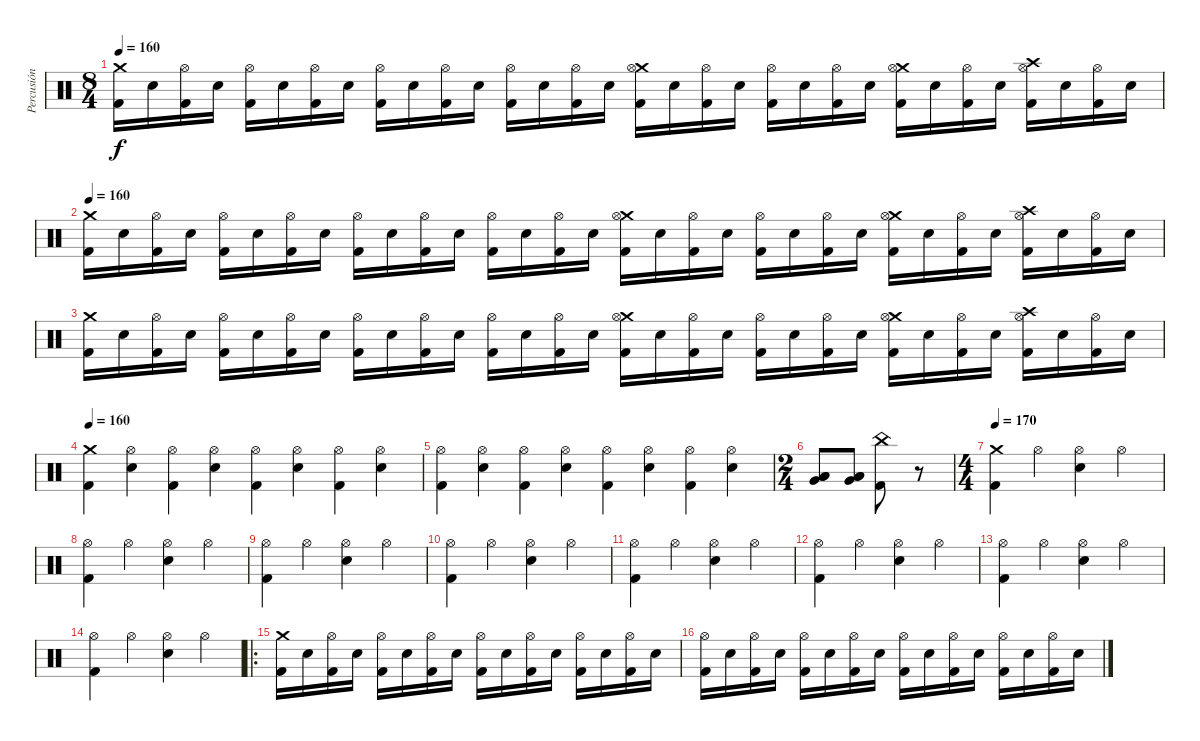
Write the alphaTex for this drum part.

\track ("Percusión" "Percusión") {instrument percussion}
\staff {score}
\articulation defaults
\ts (8 4)
\tempo 160
\clef neutral
\ks c
("Crash medium (hit)" "Kick (hit) 2").16{dy f} "Electric Snare (hit)".16 ("Hi-Hat (open)" "Kick (hit) 2").16 "Electric Snare (hit)".16 ("Hi-Hat (open)" "Kick (hit) 2").16 "Electric Snare (hit)".16 ("Hi-Hat (open)" "Kick (hit) 2").16 "Electric Snare (hit)".16 ("Hi-Hat (open)" "Kick (hit) 2").16 "Electric Snare (hit)".16 ("Hi-Hat (open)" "Kick (hit) 2").16 "Electric Snare (hit)".16 ("Hi-Hat (open)" "Kick (hit) 2").16 "Electric Snare (hit)".16 ("Hi-Hat (open)" "Kick (hit) 2").16 "Electric Snare (hit)".16 ("Crash medium (hit)" "Hi-Hat (open)" "Kick (hit) 2").16 "Electric Snare (hit)".16 ("Hi-Hat (open)" "Kick (hit) 2").16 "Electric Snare (hit)".16 ("Hi-Hat (open)" "Kick (hit) 2").16 "Electric Snare (hit)".16 ("Hi-Hat (open)" "Kick (hit) 2").16 "Electric Snare (hit)".16 ("Crash medium (hit)" "Hi-Hat (open)" "Kick (hit) 2").16 "Electric Snare (hit)".16 ("Hi-Hat (open)" "Kick (hit) 2").16 "Electric Snare (hit)".16 ("Crash high (hit)" "Hi-Hat (open)" "Kick (hit) 2").16 "Electric Snare (hit)".16 ("Hi-Hat (open)" "Kick (hit) 2").16 "Electric Snare (hit)".16 |
\tempo 160
("Crash medium (hit)" "Kick (hit) 2").16 "Electric Snare (hit)".16 ("Hi-Hat (open)" "Kick (hit) 2").16 "Electric Snare (hit)".16 ("Hi-Hat (open)" "Kick (hit) 2").16 "Electric Snare (hit)".16 ("Hi-Hat (open)" "Kick (hit) 2").16 "Electric Snare (hit)".16 ("Hi-Hat (open)" "Kick (hit) 2").16 "Electric Snare (hit)".16 ("Hi-Hat (open)" "Kick (hit) 2").16 "Electric Snare (hit)".16 ("Hi-Hat (open)" "Kick (hit) 2").16 "Electric Snare (hit)".16 ("Hi-Hat (open)" "Kick (hit) 2").16 "Electric Snare (hit)".16 ("Crash medium (hit)" "Hi-Hat (open)" "Kick (hit) 2").16 "Electric Snare (hit)".16 ("Hi-Hat (open)" "Kick (hit) 2").16 "Electric Snare (hit)".16 ("Hi-Hat (open)" "Kick (hit) 2").16 "Electric Snare (hit)".16 ("Hi-Hat (open)" "Kick (hit) 2").16 "Electric Snare (hit)".16 ("Crash medium (hit)" "Hi-Hat (open)" "Kick (hit) 2").16 "Electric Snare (hit)".16 ("Hi-Hat (open)" "Kick (hit) 2").16 "Electric Snare (hit)".16 ("Crash high (hit)" "Hi-Hat (open)" "Kick (hit) 2").16 "Electric Snare (hit)".16 ("Hi-Hat (open)" "Kick (hit) 2").16 "Electric Snare (hit)".16 |
("Crash medium (hit)" "Kick (hit) 2").16 "Electric Snare (hit)".16 ("Hi-Hat (open)" "Kick (hit) 2").16 "Electric Snare (hit)".16 ("Hi-Hat (open)" "Kick (hit) 2").16 "Electric Snare (hit)".16 ("Hi-Hat (open)" "Kick (hit) 2").16 "Electric Snare (hit)".16 ("Hi-Hat (open)" "Kick (hit) 2").16 "Electric Snare (hit)".16 ("Hi-Hat (open)" "Kick (hit) 2").16 "Electric Snare (hit)".16 ("Hi-Hat (open)" "Kick (hit) 2").16 "Electric Snare (hit)".16 ("Hi-Hat (open)" "Kick (hit) 2").16 "Electric Snare (hit)".16 ("Crash medium (hit)" "Hi-Hat (open)" "Kick (hit) 2").16 "Electric Snare (hit)".16 ("Hi-Hat (open)" "Kick (hit) 2").16 "Electric Snare (hit)".16 ("Hi-Hat (open)" "Kick (hit) 2").16 "Electric Snare (hit)".16 ("Hi-Hat (open)" "Kick (hit) 2").16 "Electric Snare (hit)".16 ("Crash medium (hit)" "Hi-Hat (open)" "Kick (hit) 2").16 "Electric Snare (hit)".16 ("Hi-Hat (open)" "Kick (hit) 2").16 "Electric Snare (hit)".16 ("Crash high (hit)" "Hi-Hat (open)" "Kick (hit) 2").16 "Electric Snare (hit)".16 ("Hi-Hat (open)" "Kick (hit) 2").16 "Electric Snare (hit)".16 |
\tempo 160
("Crash medium (hit)" "Kick (hit) 2").4 ("Hi-Hat (open)" "Electric Snare (hit)").4 ("Hi-Hat (open)" "Kick (hit) 2").4 ("Hi-Hat (open)" "Electric Snare (hit)").4 ("Hi-Hat (open)" "Kick (hit) 2").4 ("Hi-Hat (open)" "Electric Snare (hit)").4 ("Hi-Hat (open)" "Kick (hit) 2").4 ("Hi-Hat (open)" "Electric Snare (hit)").4 |
("Hi-Hat (open)" "Kick (hit) 2").4 ("Hi-Hat (open)" "Electric Snare (hit)").4 ("Hi-Hat (open)" "Kick (hit) 2").4 ("Hi-Hat (open)" "Electric Snare (hit)").4 ("Hi-Hat (open)" "Kick (hit) 2").4 ("Hi-Hat (open)" "Electric Snare (hit)").4 ("Hi-Hat (open)" "Kick (hit) 2").4 ("Hi-Hat (open)" "Electric Snare (hit)").4 |
\ts (2 4)
("Low Tom (hit)" "Very Low Tom (hit)" "Low Floor Tom (hit)").8 ("Low Tom (hit)" "Very Low Tom (hit)" "Low Floor Tom (hit)").8 ("China (hit)" "Kick (hit) 2").8 r.8 |
\ts (4 4)
\tempo 170
("Crash medium (hit)" "Kick (hit) 2").4 "Hi-Hat (open)".4 ("Hi-Hat (open)" "Electric Snare (hit)").4 "Hi-Hat (open)".4 |
("Hi-Hat (open)" "Kick (hit) 2").4 "Hi-Hat (open)".4 ("Hi-Hat (open)" "Electric Snare (hit)").4 "Hi-Hat (open)".4 |
("Hi-Hat (open)" "Kick (hit) 2").4 "Hi-Hat (open)".4 ("Hi-Hat (open)" "Electric Snare (hit)").4 "Hi-Hat (open)".4 |
("Hi-Hat (open)" "Kick (hit) 2").4 "Hi-Hat (open)".4 ("Hi-Hat (open)" "Electric Snare (hit)").4 "Hi-Hat (open)".4 |
("Hi-Hat (open)" "Kick (hit) 2").4 "Hi-Hat (open)".4 ("Hi-Hat (open)" "Electric Snare (hit)").4 "Hi-Hat (open)".4 |
("Hi-Hat (open)" "Kick (hit) 2").4 "Hi-Hat (open)".4 ("Hi-Hat (open)" "Electric Snare (hit)").4 "Hi-Hat (open)".4 |
("Hi-Hat (open)" "Kick (hit) 2").4 "Hi-Hat (open)".4 ("Hi-Hat (open)" "Electric Snare (hit)").4 "Hi-Hat (open)".4 |
("Hi-Hat (open)" "Kick (hit) 2").4 "Hi-Hat (open)".4 ("Hi-Hat (open)" "Electric Snare (hit)").4 "Hi-Hat (open)".4 |
\ro
("Crash medium (hit)" "Kick (hit) 2").16 "Electric Snare (hit)".16 ("Hi-Hat (open)" "Kick (hit) 2").16 "Electric Snare (hit)".16 ("Hi-Hat (open)" "Kick (hit) 2").16 "Electric Snare (hit)".16 ("Hi-Hat (open)" "Kick (hit) 2").16 "Electric Snare (hit)".16 ("Hi-Hat (open)" "Kick (hit) 2").16 "Electric Snare (hit)".16 ("Hi-Hat (open)" "Kick (hit) 2").16 "Electric Snare (hit)".16 ("Hi-Hat (open)" "Kick (hit) 2").16 "Electric Snare (hit)".16 ("Hi-Hat (open)" "Kick (hit) 2").16 "Electric Snare (hit)".16 |
("Hi-Hat (open)" "Kick (hit) 2").16 "Electric Snare (hit)".16 ("Hi-Hat (open)" "Kick (hit) 2").16 "Electric Snare (hit)".16 ("Hi-Hat (open)" "Kick (hit) 2").16 "Electric Snare (hit)".16 ("Hi-Hat (open)" "Kick (hit) 2").16 "Electric Snare (hit)".16 ("Hi-Hat (open)" "Kick (hit) 2").16 "Electric Snare (hit)".16 ("Hi-Hat (open)" "Kick (hit) 2").16 "Electric Snare (hit)".16 ("Hi-Hat (open)" "Kick (hit) 2").16 "Electric Snare (hit)".16 ("Hi-Hat (open)" "Kick (hit) 2").16 "Electric Snare (hit)".16
